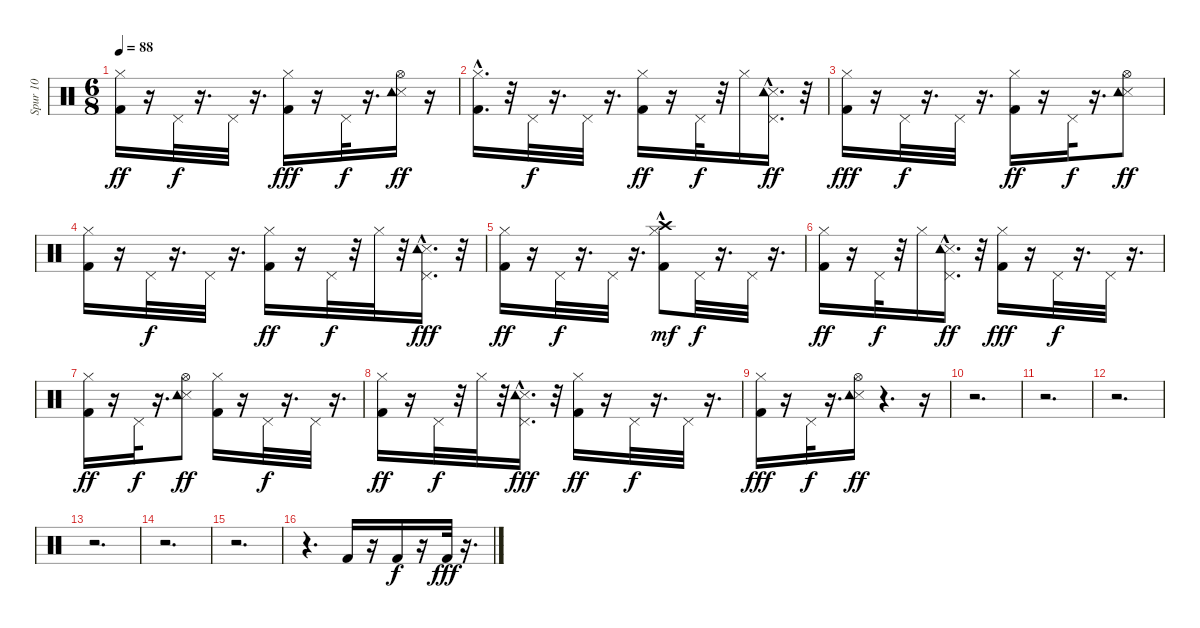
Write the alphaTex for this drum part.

\track ("Spur 10" "Spur 10") {instrument percussion}
\staff {score}
\articulation defaults
\ts (6 8)
\tempo 88
\clef neutral
\ks c
("Kick (hit) 2" "Hi-Hat (closed)").16{dy ff} r.16 "Pedal Hi-Hat (hit)".32{dy f} r.16{d} "Pedal Hi-Hat (hit)".32 r.16{d} ("Kick (hit) 2" "Hi-Hat (closed)").16{dy fff} r.16 "Pedal Hi-Hat (hit)".32{dy f} r.16{d} ("Snare (side stick) 3" "Hi-Hat (open)" "Tambourine (hit)").16{dy ff} r.16 |
("Kick (hit) 2"{hac} "Hi-Hat (closed)"{hac}).16{d} r.32 "Pedal Hi-Hat (hit)".32{dy f} r.16{d} "Pedal Hi-Hat (hit)".32 r.16{d} ("Kick (hit) 2" "Hi-Hat (closed)").16{dy ff} r.16 "Pedal Hi-Hat (hit)".32{dy f} r.32 "Hi-Hat (closed)".16 ("Snare (side stick) 3" "Pedal Hi-Hat (hit)" "Tambourine (hit)"{hac}).16{d dy ff} r.32 |
("Kick (hit) 2" "Hi-Hat (closed)").16{dy fff} r.16 "Pedal Hi-Hat (hit)".32{dy f} r.16{d} "Pedal Hi-Hat (hit)".32 r.16{d} ("Kick (hit) 2" "Hi-Hat (closed)").16{dy ff} r.16 "Pedal Hi-Hat (hit)".32{dy f} r.16{d} ("Snare (side stick) 3" "Hi-Hat (open)" "Tambourine (hit)").8{dy ff} |
("Kick (hit) 2" "Hi-Hat (closed)").16 r.16 "Pedal Hi-Hat (hit)".32{dy f} r.16{d} "Pedal Hi-Hat (hit)".32 r.16{d} ("Kick (hit) 2" "Hi-Hat (closed)").16{dy ff} r.16 "Pedal Hi-Hat (hit)".32{dy f} r.32 "Hi-Hat (closed)".32 r.32 ("Pedal Hi-Hat (hit)" "Snare (side stick) 3" "Tambourine (hit)"{hac}).16{d dy fff} r.32 |
("Kick (hit) 2" "Hi-Hat (closed)").16{dy ff} r.16 "Pedal Hi-Hat (hit)".32{dy f} r.16{d} "Pedal Hi-Hat (hit)".32 r.16{d} ("Kick (hit) 2"{hac} "Hi-Hat (closed)"{hac} "Crash high (hit)").8{dy mf} "Pedal Hi-Hat (hit)".32{dy f} r.16{d} "Pedal Hi-Hat (hit)".32 r.16{d} |
("Kick (hit) 2" "Hi-Hat (closed)").16{dy ff} r.16 "Pedal Hi-Hat (hit)".32{dy f} r.32 "Hi-Hat (closed)".16 ("Snare (side stick) 3" "Pedal Hi-Hat (hit)" "Tambourine (hit)"{hac}).16{d dy ff} r.32 ("Kick (hit) 2" "Hi-Hat (closed)").16{dy fff} r.16 "Pedal Hi-Hat (hit)".32{dy f} r.16{d} "Pedal Hi-Hat (hit)".32 r.16{d} |
("Kick (hit) 2" "Hi-Hat (closed)").16{dy ff} r.16 "Pedal Hi-Hat (hit)".32{dy f} r.16{d} ("Snare (side stick) 3" "Hi-Hat (open)" "Tambourine (hit)").8{dy ff} ("Kick (hit) 2" "Hi-Hat (closed)").16 r.16 "Pedal Hi-Hat (hit)".32{dy f} r.16{d} "Pedal Hi-Hat (hit)".32 r.16{d} |
("Kick (hit) 2" "Hi-Hat (closed)").16{dy ff} r.16 "Pedal Hi-Hat (hit)".32{dy f} r.32 "Hi-Hat (closed)".32 r.32 ("Pedal Hi-Hat (hit)" "Snare (side stick) 3" "Tambourine (hit)"{hac}).16{d dy fff} r.32 ("Kick (hit) 2" "Hi-Hat (closed)").16{dy ff} r.16 "Pedal Hi-Hat (hit)".32{dy f} r.16{d} "Pedal Hi-Hat (hit)".32 r.16{d} |
("Kick (hit) 2" "Hi-Hat (closed)").16{dy fff} r.16 "Pedal Hi-Hat (hit)".32{dy f} r.16{d} ("Snare (side stick) 3" "Hi-Hat (open)" "Tambourine (hit)").16{dy ff} r.4{d} r.16 |
r.2{d} |
r.2{d} |
r.2{d} |
r.2{d} |
r.2{d} |
r.2{d} |
r.4{d} "Kick (hit) 2".16 r.16 "Kick (hit) 2".16{dy f} r.16 "Kick (hit) 2".32{dy fff} r.16{d}
